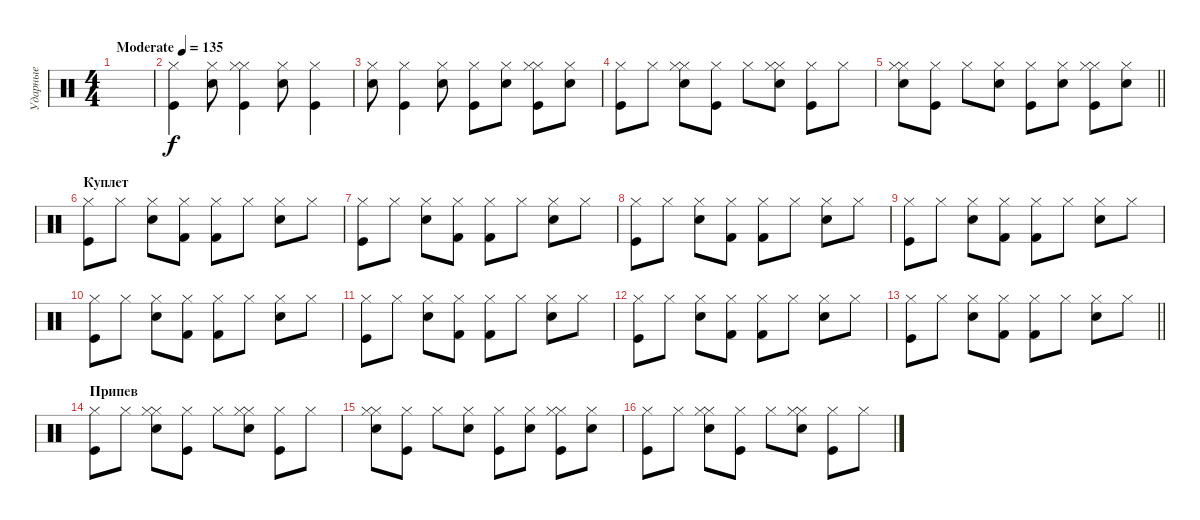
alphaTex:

\track ("Ударные" "Ударные") {instrument percussion}
\staff {score}
\articulation defaults
\ts (4 4)
\tempo (135 "Moderate")
\clef neutral
\ks c
|
("Hi-Hat (closed)" "Kick (hit)").4 ("Hi-Hat (closed)" "Snare (hit) 2").8 ("Kick (hit)" "Hi-Hat (closed)" "Hi-Hat (closed)").4 ("Snare (hit) 2" "Hi-Hat (closed)").8 ("Kick (hit)" "Hi-Hat (closed)").4 |
("Snare (hit) 2" "Hi-Hat (closed)").8 ("Hi-Hat (closed)" "Kick (hit)").4 ("Hi-Hat (closed)" "Snare (hit) 2").8 ("Hi-Hat (closed)" "Kick (hit)").8 ("Hi-Hat (closed)" "Snare (hit) 2").8 ("Kick (hit)" "Hi-Hat (closed)" "Hi-Hat (closed)").8 ("Snare (hit) 2" "Hi-Hat (closed)").8 |
("Hi-Hat (closed)" "Kick (hit)").8 "Hi-Hat (closed)".8 ("Snare (hit) 2" "Hi-Hat (closed)" "Hi-Hat (closed)").8 ("Hi-Hat (closed)" "Kick (hit)").8 "Hi-Hat (closed)".8 ("Snare (hit) 2" "Hi-Hat (closed)" "Hi-Hat (closed)").8 ("Hi-Hat (closed)" "Kick (hit)").8 "Hi-Hat (closed)".8 |
\barLineRight lightlight
("Snare (hit) 2" "Hi-Hat (closed)" "Hi-Hat (closed)").8 ("Hi-Hat (closed)" "Kick (hit)").8 "Hi-Hat (closed)".8 ("Hi-Hat (closed)" "Snare (hit) 2").8 ("Hi-Hat (closed)" "Kick (hit)").8 ("Hi-Hat (closed)" "Snare (hit) 2").8 ("Kick (hit)" "Hi-Hat (closed)" "Hi-Hat (closed)").8 ("Snare (hit) 2" "Hi-Hat (closed)").8 |
\section ("" "Куплет")
("Kick (hit)" "Hi-Hat (closed)").8 "Hi-Hat (closed)".8 ("Snare (hit) 2" "Hi-Hat (closed)").8 ("Hi-Hat (closed)" "Kick (hit) 2").8 ("Hi-Hat (closed)" "Kick (hit) 2").8 "Hi-Hat (closed)".8 ("Hi-Hat (closed)" "Snare (hit) 2").8 "Hi-Hat (closed)".8 |
("Kick (hit)" "Hi-Hat (closed)").8 "Hi-Hat (closed)".8 ("Snare (hit) 2" "Hi-Hat (closed)").8 ("Hi-Hat (closed)" "Kick (hit) 2").8 ("Hi-Hat (closed)" "Kick (hit) 2").8 "Hi-Hat (closed)".8 ("Hi-Hat (closed)" "Snare (hit) 2").8 "Hi-Hat (closed)".8 |
("Kick (hit)" "Hi-Hat (closed)").8 "Hi-Hat (closed)".8 ("Snare (hit) 2" "Hi-Hat (closed)").8 ("Hi-Hat (closed)" "Kick (hit) 2").8 ("Hi-Hat (closed)" "Kick (hit) 2").8 "Hi-Hat (closed)".8 ("Hi-Hat (closed)" "Snare (hit) 2").8 "Hi-Hat (closed)".8 |
("Kick (hit)" "Hi-Hat (closed)").8 "Hi-Hat (closed)".8 ("Snare (hit) 2" "Hi-Hat (closed)").8 ("Hi-Hat (closed)" "Kick (hit) 2").8 ("Hi-Hat (closed)" "Kick (hit) 2").8 "Hi-Hat (closed)".8 ("Hi-Hat (closed)" "Snare (hit) 2").8 "Hi-Hat (closed)".8 |
("Kick (hit)" "Hi-Hat (closed)").8 "Hi-Hat (closed)".8 ("Snare (hit) 2" "Hi-Hat (closed)").8 ("Hi-Hat (closed)" "Kick (hit) 2").8 ("Hi-Hat (closed)" "Kick (hit) 2").8 "Hi-Hat (closed)".8 ("Hi-Hat (closed)" "Snare (hit) 2").8 "Hi-Hat (closed)".8 |
("Kick (hit)" "Hi-Hat (closed)").8 "Hi-Hat (closed)".8 ("Snare (hit) 2" "Hi-Hat (closed)").8 ("Hi-Hat (closed)" "Kick (hit) 2").8 ("Hi-Hat (closed)" "Kick (hit) 2").8 "Hi-Hat (closed)".8 ("Hi-Hat (closed)" "Snare (hit) 2").8 "Hi-Hat (closed)".8 |
("Kick (hit)" "Hi-Hat (closed)").8 "Hi-Hat (closed)".8 ("Snare (hit) 2" "Hi-Hat (closed)").8 ("Hi-Hat (closed)" "Kick (hit) 2").8 ("Hi-Hat (closed)" "Kick (hit) 2").8 "Hi-Hat (closed)".8 ("Hi-Hat (closed)" "Snare (hit) 2").8 "Hi-Hat (closed)".8 |
\barLineRight lightlight
("Kick (hit)" "Hi-Hat (closed)").8 "Hi-Hat (closed)".8 ("Snare (hit) 2" "Hi-Hat (closed)").8 ("Hi-Hat (closed)" "Kick (hit) 2").8 ("Hi-Hat (closed)" "Kick (hit) 2").8 "Hi-Hat (closed)".8 ("Hi-Hat (closed)" "Snare (hit) 2").8 "Hi-Hat (closed)".8 |
\section ("" "Припев")
("Hi-Hat (closed)" "Kick (hit)").8 "Hi-Hat (closed)".8 ("Snare (hit) 2" "Hi-Hat (closed)" "Hi-Hat (closed)").8 ("Hi-Hat (closed)" "Kick (hit)").8 "Hi-Hat (closed)".8 ("Snare (hit) 2" "Hi-Hat (closed)" "Hi-Hat (closed)").8 ("Hi-Hat (closed)" "Kick (hit)").8 "Hi-Hat (closed)".8 |
("Snare (hit) 2" "Hi-Hat (closed)" "Hi-Hat (closed)").8 ("Hi-Hat (closed)" "Kick (hit)").8 "Hi-Hat (closed)".8 ("Hi-Hat (closed)" "Snare (hit) 2").8 ("Hi-Hat (closed)" "Kick (hit)").8 ("Hi-Hat (closed)" "Snare (hit) 2").8 ("Kick (hit)" "Hi-Hat (closed)" "Hi-Hat (closed)").8 ("Snare (hit) 2" "Hi-Hat (closed)").8 |
("Hi-Hat (closed)" "Kick (hit)").8 "Hi-Hat (closed)".8 ("Snare (hit) 2" "Hi-Hat (closed)" "Hi-Hat (closed)").8 ("Hi-Hat (closed)" "Kick (hit)").8 "Hi-Hat (closed)".8 ("Snare (hit) 2" "Hi-Hat (closed)" "Hi-Hat (closed)").8 ("Hi-Hat (closed)" "Kick (hit)").8 "Hi-Hat (closed)".8
